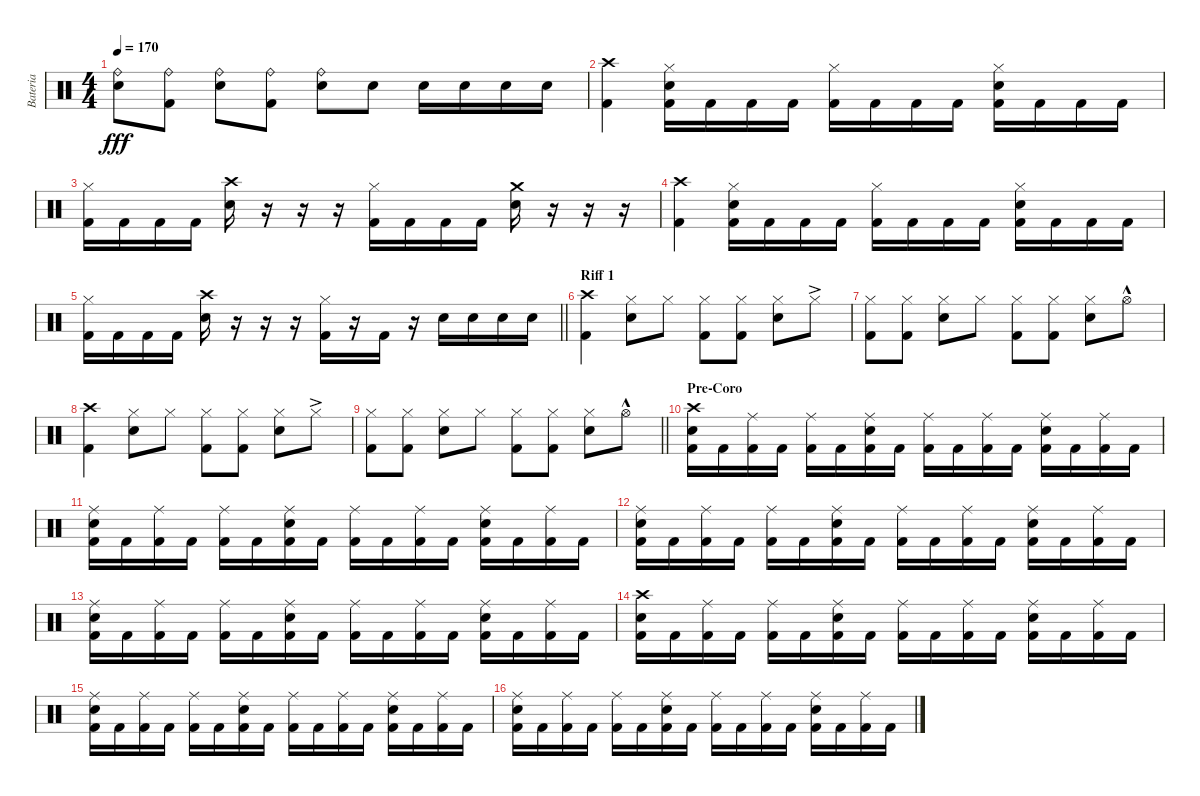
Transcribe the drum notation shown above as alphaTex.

\track ("Bateria" "Bateria") {instrument percussion}
\staff {score}
\articulation defaults
\ts (4 4)
\tempo 170
\clef neutral
\ks c
("Ride (bell)" "Electric Snare (hit)").8{dy fff} ("Ride (bell)" "Kick (hit) 2").8 ("Ride (bell)" "Electric Snare (hit)").8 ("Ride (bell)" "Kick (hit) 2").8 ("Ride (bell)" "Electric Snare (hit)").8 "Electric Snare (hit)".8 "Electric Snare (hit)".16 "Electric Snare (hit)".16 "Electric Snare (hit)".16 "Electric Snare (hit)".16 |
("Crash high (hit)" "Kick (hit) 2").4 ("Hi-Hat (closed)" "Electric Snare (hit)" "Kick (hit) 2").16 "Kick (hit) 2".16 "Kick (hit) 2".16 "Kick (hit) 2".16 ("Hi-Hat (closed)" "Kick (hit) 2").16 "Kick (hit) 2".16 "Kick (hit) 2".16 "Kick (hit) 2".16 ("Hi-Hat (closed)" "Electric Snare (hit)" "Kick (hit) 2").16 "Kick (hit) 2".16 "Kick (hit) 2".16 "Kick (hit) 2".16 |
("Hi-Hat (closed)" "Kick (hit) 2").16 "Kick (hit) 2".16 "Kick (hit) 2".16 "Kick (hit) 2".16 ("Crash high (hit)" "Electric Snare (hit)").16 r.16 r.16 r.16 ("Hi-Hat (closed)" "Kick (hit) 2").16 "Kick (hit) 2".16 "Kick (hit) 2".16 "Kick (hit) 2".16 ("Crash medium (hit)" "Electric Snare (hit)").16 r.16 r.16 r.16 |
("Crash high (hit)" "Kick (hit) 2").4 ("Hi-Hat (closed)" "Electric Snare (hit)" "Kick (hit) 2").16 "Kick (hit) 2".16 "Kick (hit) 2".16 "Kick (hit) 2".16 ("Hi-Hat (closed)" "Kick (hit) 2").16 "Kick (hit) 2".16 "Kick (hit) 2".16 "Kick (hit) 2".16 ("Hi-Hat (closed)" "Electric Snare (hit)" "Kick (hit) 2").16 "Kick (hit) 2".16 "Kick (hit) 2".16 "Kick (hit) 2".16 |
\barLineRight lightlight
("Hi-Hat (closed)" "Kick (hit) 2").16 "Kick (hit) 2".16 "Kick (hit) 2".16 "Kick (hit) 2".16 ("Crash high (hit)" "Electric Snare (hit)").16 r.16 r.16 r.16 ("Hi-Hat (closed)" "Kick (hit) 2").16 r.16 "Kick (hit) 2".16 r.16 "Electric Snare (hit)".16 "Electric Snare (hit)".16 "Electric Snare (hit)".16 "Electric Snare (hit)".16 |
\section ("" "Riff 1")
("Crash high (hit)" "Kick (hit) 2").4 ("Hi-Hat (closed)" "Electric Snare (hit)").8 "Hi-Hat (closed)".8 ("Hi-Hat (closed)" "Kick (hit) 2").8 ("Hi-Hat (closed)" "Kick (hit) 2").8 ("Hi-Hat (closed)" "Electric Snare (hit)").8 "Hi-Hat (closed)"{ac}.8 |
("Hi-Hat (closed)" "Kick (hit) 2").8 ("Hi-Hat (closed)" "Kick (hit) 2").8 ("Hi-Hat (closed)" "Electric Snare (hit)").8 "Hi-Hat (closed)".8 ("Hi-Hat (closed)" "Kick (hit) 2").8 ("Hi-Hat (closed)" "Kick (hit) 2").8 ("Hi-Hat (closed)" "Electric Snare (hit)").8 "Hi-Hat (open)"{hac}.8 |
("Crash high (hit)" "Kick (hit) 2").4 ("Hi-Hat (closed)" "Electric Snare (hit)").8 "Hi-Hat (closed)".8 ("Hi-Hat (closed)" "Kick (hit) 2").8 ("Hi-Hat (closed)" "Kick (hit) 2").8 ("Hi-Hat (closed)" "Electric Snare (hit)").8 "Hi-Hat (closed)"{ac}.8 |
\barLineRight lightlight
("Hi-Hat (closed)" "Kick (hit) 2").8 ("Hi-Hat (closed)" "Kick (hit) 2").8 ("Hi-Hat (closed)" "Electric Snare (hit)").8 "Hi-Hat (closed)".8 ("Hi-Hat (closed)" "Kick (hit) 2").8 ("Hi-Hat (closed)" "Kick (hit) 2").8 ("Hi-Hat (closed)" "Electric Snare (hit)").8 "Hi-Hat (open)"{hac}.8 |
\section ("" "Pre-Coro")
("Crash high (hit)" "Electric Snare (hit)" "Kick (hit) 2").16 "Kick (hit) 2".16 ("Ride (middle)" "Kick (hit) 2").16 "Kick (hit) 2".16 ("Ride (middle)" "Kick (hit) 2").16 "Kick (hit) 2".16 ("Ride (middle)" "Electric Snare (hit)" "Kick (hit) 2").16 "Kick (hit) 2".16 ("Ride (middle)" "Kick (hit) 2").16 "Kick (hit) 2".16 ("Ride (middle)" "Kick (hit) 2").16 "Kick (hit) 2".16 ("Ride (middle)" "Electric Snare (hit)" "Kick (hit) 2").16 "Kick (hit) 2".16 ("Ride (middle)" "Kick (hit) 2").16 "Kick (hit) 2".16 |
("Ride (middle)" "Electric Snare (hit)" "Kick (hit) 2").16 "Kick (hit) 2".16 ("Ride (middle)" "Kick (hit) 2").16 "Kick (hit) 2".16 ("Ride (middle)" "Kick (hit) 2").16 "Kick (hit) 2".16 ("Ride (middle)" "Electric Snare (hit)" "Kick (hit) 2").16 "Kick (hit) 2".16 ("Ride (middle)" "Kick (hit) 2").16 "Kick (hit) 2".16 ("Ride (middle)" "Kick (hit) 2").16 "Kick (hit) 2".16 ("Ride (middle)" "Electric Snare (hit)" "Kick (hit) 2").16 "Kick (hit) 2".16 ("Ride (middle)" "Kick (hit) 2").16 "Kick (hit) 2".16 |
("Ride (middle)" "Electric Snare (hit)" "Kick (hit) 2").16 "Kick (hit) 2".16 ("Ride (middle)" "Kick (hit) 2").16 "Kick (hit) 2".16 ("Ride (middle)" "Kick (hit) 2").16 "Kick (hit) 2".16 ("Ride (middle)" "Electric Snare (hit)" "Kick (hit) 2").16 "Kick (hit) 2".16 ("Ride (middle)" "Kick (hit) 2").16 "Kick (hit) 2".16 ("Ride (middle)" "Kick (hit) 2").16 "Kick (hit) 2".16 ("Ride (middle)" "Electric Snare (hit)" "Kick (hit) 2").16 "Kick (hit) 2".16 ("Ride (middle)" "Kick (hit) 2").16 "Kick (hit) 2".16 |
("Ride (middle)" "Electric Snare (hit)" "Kick (hit) 2").16 "Kick (hit) 2".16 ("Ride (middle)" "Kick (hit) 2").16 "Kick (hit) 2".16 ("Ride (middle)" "Kick (hit) 2").16 "Kick (hit) 2".16 ("Ride (middle)" "Electric Snare (hit)" "Kick (hit) 2").16 "Kick (hit) 2".16 ("Ride (middle)" "Kick (hit) 2").16 "Kick (hit) 2".16 ("Ride (middle)" "Kick (hit) 2").16 "Kick (hit) 2".16 ("Ride (middle)" "Electric Snare (hit)" "Kick (hit) 2").16 "Kick (hit) 2".16 ("Ride (middle)" "Kick (hit) 2").16 "Kick (hit) 2".16 |
("Crash high (hit)" "Electric Snare (hit)" "Kick (hit) 2").16 "Kick (hit) 2".16 ("Ride (middle)" "Kick (hit) 2").16 "Kick (hit) 2".16 ("Ride (middle)" "Kick (hit) 2").16 "Kick (hit) 2".16 ("Ride (middle)" "Electric Snare (hit)" "Kick (hit) 2").16 "Kick (hit) 2".16 ("Ride (middle)" "Kick (hit) 2").16 "Kick (hit) 2".16 ("Ride (middle)" "Kick (hit) 2").16 "Kick (hit) 2".16 ("Ride (middle)" "Electric Snare (hit)" "Kick (hit) 2").16 "Kick (hit) 2".16 ("Ride (middle)" "Kick (hit) 2").16 "Kick (hit) 2".16 |
("Ride (middle)" "Electric Snare (hit)" "Kick (hit) 2").16 "Kick (hit) 2".16 ("Ride (middle)" "Kick (hit) 2").16 "Kick (hit) 2".16 ("Ride (middle)" "Kick (hit) 2").16 "Kick (hit) 2".16 ("Ride (middle)" "Electric Snare (hit)" "Kick (hit) 2").16 "Kick (hit) 2".16 ("Ride (middle)" "Kick (hit) 2").16 "Kick (hit) 2".16 ("Ride (middle)" "Kick (hit) 2").16 "Kick (hit) 2".16 ("Ride (middle)" "Electric Snare (hit)" "Kick (hit) 2").16 "Kick (hit) 2".16 ("Ride (middle)" "Kick (hit) 2").16 "Kick (hit) 2".16 |
("Ride (middle)" "Electric Snare (hit)" "Kick (hit) 2").16 "Kick (hit) 2".16 ("Ride (middle)" "Kick (hit) 2").16 "Kick (hit) 2".16 ("Ride (middle)" "Kick (hit) 2").16 "Kick (hit) 2".16 ("Ride (middle)" "Electric Snare (hit)" "Kick (hit) 2").16 "Kick (hit) 2".16 ("Ride (middle)" "Kick (hit) 2").16 "Kick (hit) 2".16 ("Ride (middle)" "Kick (hit) 2").16 "Kick (hit) 2".16 ("Ride (middle)" "Electric Snare (hit)" "Kick (hit) 2").16 "Kick (hit) 2".16 ("Ride (middle)" "Kick (hit) 2").16 "Kick (hit) 2".16
